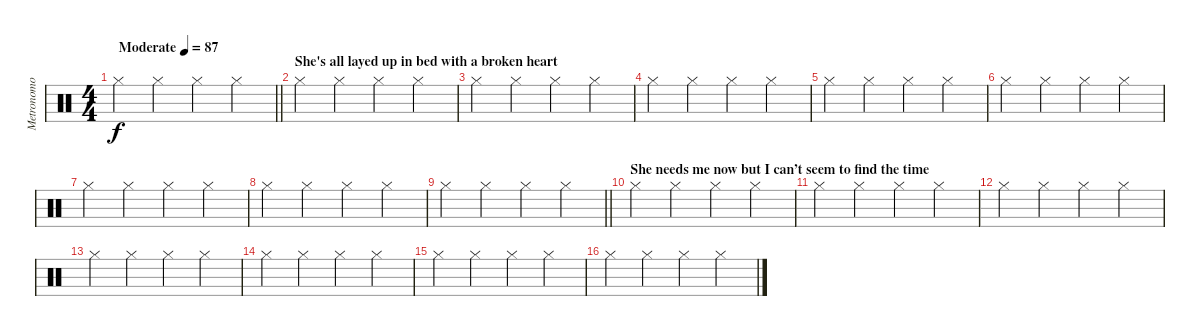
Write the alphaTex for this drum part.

\track ("Metronomo" "Metronomo") {instrument percussion}
\staff {score}
\articulation defaults
\ts (4 4)
\tempo (87 "Moderate")
\clef neutral
\barLineRight lightlight
\ks c "Hi-Hat (closed)".4{dy f} "Hi-Hat (closed)".4 "Hi-Hat (closed)".4 "Hi-Hat (closed)".4
|
\section ("" "She's all layed up in bed with a broken heart")
"Hi-Hat (closed)".4 "Hi-Hat (closed)".4 "Hi-Hat (closed)".4 "Hi-Hat (closed)".4 |
"Hi-Hat (closed)".4 "Hi-Hat (closed)".4 "Hi-Hat (closed)".4 "Hi-Hat (closed)".4 |
"Hi-Hat (closed)".4 "Hi-Hat (closed)".4 "Hi-Hat (closed)".4 "Hi-Hat (closed)".4 |
"Hi-Hat (closed)".4 "Hi-Hat (closed)".4 "Hi-Hat (closed)".4 "Hi-Hat (closed)".4 |
"Hi-Hat (closed)".4 "Hi-Hat (closed)".4 "Hi-Hat (closed)".4 "Hi-Hat (closed)".4 |
"Hi-Hat (closed)".4 "Hi-Hat (closed)".4 "Hi-Hat (closed)".4 "Hi-Hat (closed)".4 |
"Hi-Hat (closed)".4 "Hi-Hat (closed)".4 "Hi-Hat (closed)".4 "Hi-Hat (closed)".4 |
\barLineRight lightlight "Hi-Hat (closed)".4 "Hi-Hat (closed)".4 "Hi-Hat (closed)".4 "Hi-Hat (closed)".4
|
\section ("" "She needs me now but I can’t seem to find the time")
"Hi-Hat (closed)".4 "Hi-Hat (closed)".4 "Hi-Hat (closed)".4 "Hi-Hat (closed)".4 |
"Hi-Hat (closed)".4 "Hi-Hat (closed)".4 "Hi-Hat (closed)".4 "Hi-Hat (closed)".4 |
"Hi-Hat (closed)".4 "Hi-Hat (closed)".4 "Hi-Hat (closed)".4 "Hi-Hat (closed)".4 |
"Hi-Hat (closed)".4 "Hi-Hat (closed)".4 "Hi-Hat (closed)".4 "Hi-Hat (closed)".4 |
"Hi-Hat (closed)".4 "Hi-Hat (closed)".4 "Hi-Hat (closed)".4 "Hi-Hat (closed)".4 |
"Hi-Hat (closed)".4 "Hi-Hat (closed)".4 "Hi-Hat (closed)".4 "Hi-Hat (closed)".4 |
"Hi-Hat (closed)".4 "Hi-Hat (closed)".4 "Hi-Hat (closed)".4 "Hi-Hat (closed)".4
